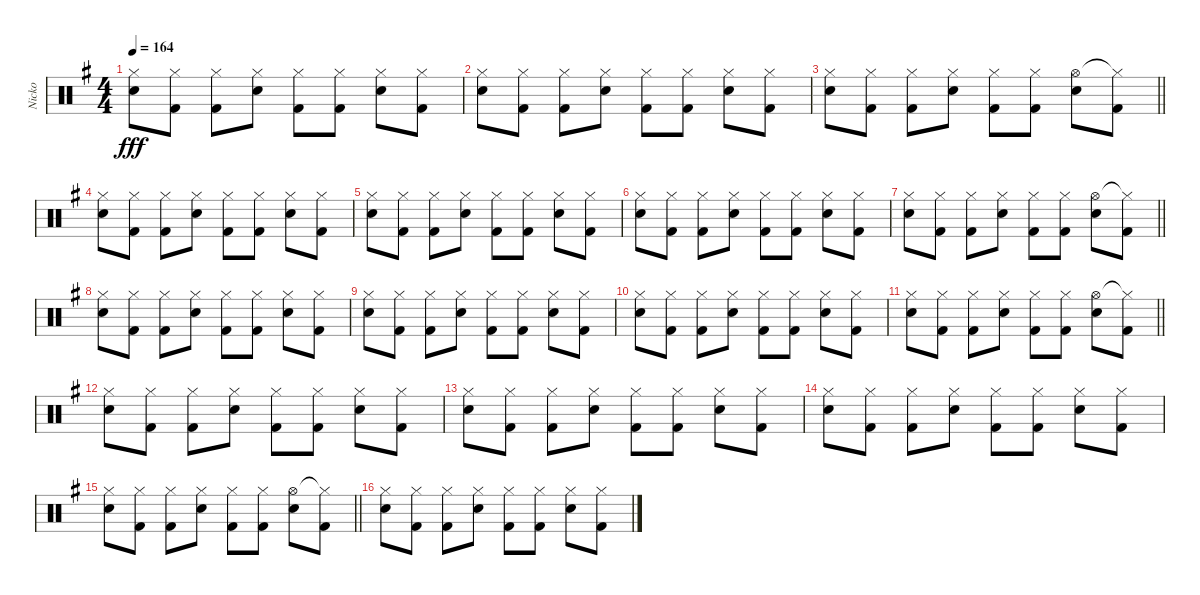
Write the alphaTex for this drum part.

\track ("Nicko" "Nicko") {instrument percussion}
\staff {score}
\articulation defaults
\ts (4 4)
\tempo 164
\clef neutral
\ks eminor
("Hi-Hat (closed)" "Snare (hit) 2").8{dy fff} ("Hi-Hat (closed)" "Kick (hit) 2").8 ("Hi-Hat (closed)" "Kick (hit) 2").8 ("Hi-Hat (closed)" "Snare (hit) 2").8 ("Hi-Hat (closed)" "Kick (hit) 2").8 ("Hi-Hat (closed)" "Kick (hit) 2").8 ("Hi-Hat (closed)" "Snare (hit) 2").8 ("Hi-Hat (closed)" "Kick (hit) 2").8 |
("Hi-Hat (closed)" "Snare (hit) 2").8 ("Hi-Hat (closed)" "Kick (hit) 2").8 ("Hi-Hat (closed)" "Kick (hit) 2").8 ("Hi-Hat (closed)" "Snare (hit) 2").8 ("Hi-Hat (closed)" "Kick (hit) 2").8 ("Hi-Hat (closed)" "Kick (hit) 2").8 ("Hi-Hat (closed)" "Snare (hit) 2").8 ("Hi-Hat (closed)" "Kick (hit) 2").8 |
\barLineRight lightlight
("Hi-Hat (closed)" "Snare (hit) 2").8 ("Hi-Hat (closed)" "Kick (hit) 2").8 ("Hi-Hat (closed)" "Kick (hit) 2").8 ("Hi-Hat (closed)" "Snare (hit) 2").8 ("Hi-Hat (closed)" "Kick (hit) 2").8 ("Hi-Hat (closed)" "Kick (hit) 2").8 ("Hi-Hat (open)" "Snare (hit) 2").8 ("Hi-Hat (closed)"{t} "Kick (hit) 2").8 |
("Hi-Hat (closed)" "Snare (hit) 2").8 ("Hi-Hat (closed)" "Kick (hit) 2").8 ("Hi-Hat (closed)" "Kick (hit) 2").8 ("Hi-Hat (closed)" "Snare (hit) 2").8 ("Hi-Hat (closed)" "Kick (hit) 2").8 ("Hi-Hat (closed)" "Kick (hit) 2").8 ("Hi-Hat (closed)" "Snare (hit) 2").8 ("Hi-Hat (closed)" "Kick (hit) 2").8 |
("Hi-Hat (closed)" "Snare (hit) 2").8 ("Hi-Hat (closed)" "Kick (hit) 2").8 ("Hi-Hat (closed)" "Kick (hit) 2").8 ("Hi-Hat (closed)" "Snare (hit) 2").8 ("Hi-Hat (closed)" "Kick (hit) 2").8 ("Hi-Hat (closed)" "Kick (hit) 2").8 ("Hi-Hat (closed)" "Snare (hit) 2").8 ("Hi-Hat (closed)" "Kick (hit) 2").8 |
("Hi-Hat (closed)" "Snare (hit) 2").8 ("Hi-Hat (closed)" "Kick (hit) 2").8 ("Hi-Hat (closed)" "Kick (hit) 2").8 ("Hi-Hat (closed)" "Snare (hit) 2").8 ("Hi-Hat (closed)" "Kick (hit) 2").8 ("Hi-Hat (closed)" "Kick (hit) 2").8 ("Hi-Hat (closed)" "Snare (hit) 2").8 ("Hi-Hat (closed)" "Kick (hit) 2").8 |
\barLineRight lightlight
("Hi-Hat (closed)" "Snare (hit) 2").8 ("Hi-Hat (closed)" "Kick (hit) 2").8 ("Hi-Hat (closed)" "Kick (hit) 2").8 ("Hi-Hat (closed)" "Snare (hit) 2").8 ("Hi-Hat (closed)" "Kick (hit) 2").8 ("Hi-Hat (closed)" "Kick (hit) 2").8 ("Hi-Hat (open)" "Snare (hit) 2").8 ("Hi-Hat (closed)"{t} "Kick (hit) 2").8 |
("Hi-Hat (closed)" "Snare (hit) 2").8 ("Hi-Hat (closed)" "Kick (hit) 2").8 ("Hi-Hat (closed)" "Kick (hit) 2").8 ("Hi-Hat (closed)" "Snare (hit) 2").8 ("Hi-Hat (closed)" "Kick (hit) 2").8 ("Hi-Hat (closed)" "Kick (hit) 2").8 ("Hi-Hat (closed)" "Snare (hit) 2").8 ("Hi-Hat (closed)" "Kick (hit) 2").8 |
("Hi-Hat (closed)" "Snare (hit) 2").8 ("Hi-Hat (closed)" "Kick (hit) 2").8 ("Hi-Hat (closed)" "Kick (hit) 2").8 ("Hi-Hat (closed)" "Snare (hit) 2").8 ("Hi-Hat (closed)" "Kick (hit) 2").8 ("Hi-Hat (closed)" "Kick (hit) 2").8 ("Hi-Hat (closed)" "Snare (hit) 2").8 ("Hi-Hat (closed)" "Kick (hit) 2").8 |
("Hi-Hat (closed)" "Snare (hit) 2").8 ("Hi-Hat (closed)" "Kick (hit) 2").8 ("Hi-Hat (closed)" "Kick (hit) 2").8 ("Hi-Hat (closed)" "Snare (hit) 2").8 ("Hi-Hat (closed)" "Kick (hit) 2").8 ("Hi-Hat (closed)" "Kick (hit) 2").8 ("Hi-Hat (closed)" "Snare (hit) 2").8 ("Hi-Hat (closed)" "Kick (hit) 2").8 |
\barLineRight lightlight
("Hi-Hat (closed)" "Snare (hit) 2").8 ("Hi-Hat (closed)" "Kick (hit) 2").8 ("Hi-Hat (closed)" "Kick (hit) 2").8 ("Hi-Hat (closed)" "Snare (hit) 2").8 ("Hi-Hat (closed)" "Kick (hit) 2").8 ("Hi-Hat (closed)" "Kick (hit) 2").8 ("Hi-Hat (open)" "Snare (hit) 2").8 ("Hi-Hat (closed)"{t} "Kick (hit) 2").8 |
("Hi-Hat (closed)" "Snare (hit) 2").8 ("Hi-Hat (closed)" "Kick (hit) 2").8 ("Hi-Hat (closed)" "Kick (hit) 2").8 ("Hi-Hat (closed)" "Snare (hit) 2").8 ("Hi-Hat (closed)" "Kick (hit) 2").8 ("Hi-Hat (closed)" "Kick (hit) 2").8 ("Hi-Hat (closed)" "Snare (hit) 2").8 ("Hi-Hat (closed)" "Kick (hit) 2").8 |
("Hi-Hat (closed)" "Snare (hit) 2").8 ("Hi-Hat (closed)" "Kick (hit) 2").8 ("Hi-Hat (closed)" "Kick (hit) 2").8 ("Hi-Hat (closed)" "Snare (hit) 2").8 ("Hi-Hat (closed)" "Kick (hit) 2").8 ("Hi-Hat (closed)" "Kick (hit) 2").8 ("Hi-Hat (closed)" "Snare (hit) 2").8 ("Hi-Hat (closed)" "Kick (hit) 2").8 |
("Hi-Hat (closed)" "Snare (hit) 2").8 ("Hi-Hat (closed)" "Kick (hit) 2").8 ("Hi-Hat (closed)" "Kick (hit) 2").8 ("Hi-Hat (closed)" "Snare (hit) 2").8 ("Hi-Hat (closed)" "Kick (hit) 2").8 ("Hi-Hat (closed)" "Kick (hit) 2").8 ("Hi-Hat (closed)" "Snare (hit) 2").8 ("Hi-Hat (closed)" "Kick (hit) 2").8 |
\barLineRight lightlight
("Hi-Hat (closed)" "Snare (hit) 2").8 ("Hi-Hat (closed)" "Kick (hit) 2").8 ("Hi-Hat (closed)" "Kick (hit) 2").8 ("Hi-Hat (closed)" "Snare (hit) 2").8 ("Hi-Hat (closed)" "Kick (hit) 2").8 ("Hi-Hat (closed)" "Kick (hit) 2").8 ("Hi-Hat (open)" "Snare (hit) 2").8 ("Hi-Hat (closed)"{t} "Kick (hit) 2").8 |
("Hi-Hat (closed)" "Snare (hit) 2").8 ("Hi-Hat (closed)" "Kick (hit) 2").8 ("Hi-Hat (closed)" "Kick (hit) 2").8 ("Hi-Hat (closed)" "Snare (hit) 2").8 ("Hi-Hat (closed)" "Kick (hit) 2").8 ("Hi-Hat (closed)" "Kick (hit) 2").8 ("Hi-Hat (closed)" "Snare (hit) 2").8 ("Hi-Hat (closed)" "Kick (hit) 2").8
